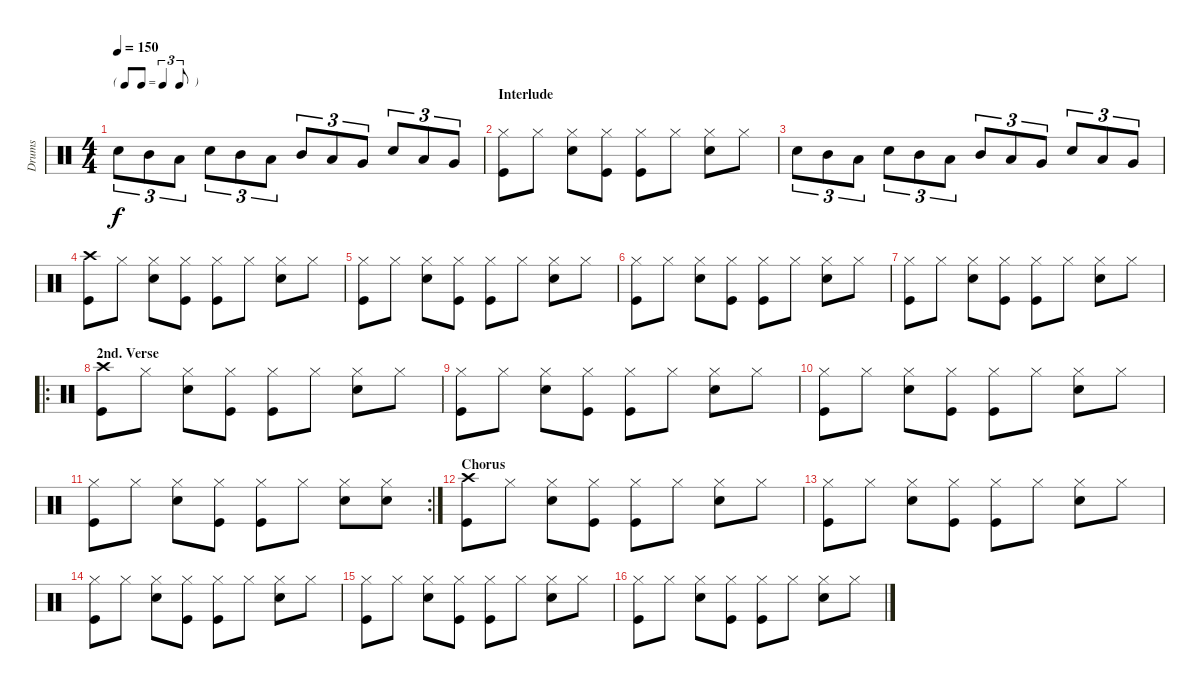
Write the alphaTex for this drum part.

\track ("Drums" "Drums") {instrument percussion}
\staff {score}
\articulation defaults
\ts (4 4)
\tf triplet8th
\tempo 150
\clef neutral
\ks c "Snare (hit) 2".8{tu (3 2) dy f} "Mid Tom (hit)".8{tu (3 2)} "Low Tom (hit)".8{tu (3 2)} "Snare (hit) 2".8{tu (3 2)} "Mid Tom (hit)".8{tu (3 2)} "Low Tom (hit)".8{tu (3 2)} "Mid Tom (hit)".8{tu (3 2)} "Low Tom (hit)".8{tu (3 2)} "Very Low Tom (hit)".8{tu (3 2)} "Snare (hit) 2".8{tu (3 2)} "Low Tom (hit)".8{tu (3 2)} "Very Low Tom (hit)".8{tu (3 2)}
|
\section ("" "Interlude")
("Hi-Hat (closed)" "Kick (hit)").8 "Hi-Hat (closed)".8 ("Hi-Hat (closed)" "Snare (hit) 2").8 ("Hi-Hat (closed)" "Kick (hit)").8 ("Hi-Hat (closed)" "Kick (hit)").8 "Hi-Hat (closed)".8 ("Hi-Hat (closed)" "Snare (hit) 2").8 "Hi-Hat (closed)".8 |
"Snare (hit) 2".8{tu (3 2)} "Mid Tom (hit)".8{tu (3 2)} "Low Tom (hit)".8{tu (3 2)} "Snare (hit) 2".8{tu (3 2)} "Mid Tom (hit)".8{tu (3 2)} "Low Tom (hit)".8{tu (3 2)} "Mid Tom (hit)".8{tu (3 2)} "Low Tom (hit)".8{tu (3 2)} "Very Low Tom (hit)".8{tu (3 2)} "Snare (hit) 2".8{tu (3 2)} "Low Tom (hit)".8{tu (3 2)} "Very Low Tom (hit)".8{tu (3 2)} |
("Crash high (hit)" "Kick (hit)").8 "Hi-Hat (closed)".8 ("Hi-Hat (closed)" "Snare (hit) 2").8 ("Hi-Hat (closed)" "Kick (hit)").8 ("Hi-Hat (closed)" "Kick (hit)").8 "Hi-Hat (closed)".8 ("Hi-Hat (closed)" "Snare (hit) 2").8 "Hi-Hat (closed)".8 |
("Hi-Hat (closed)" "Kick (hit)").8 "Hi-Hat (closed)".8 ("Hi-Hat (closed)" "Snare (hit) 2").8 ("Hi-Hat (closed)" "Kick (hit)").8 ("Hi-Hat (closed)" "Kick (hit)").8 "Hi-Hat (closed)".8 ("Hi-Hat (closed)" "Snare (hit) 2").8 "Hi-Hat (closed)".8 |
("Hi-Hat (closed)" "Kick (hit)").8 "Hi-Hat (closed)".8 ("Hi-Hat (closed)" "Snare (hit) 2").8 ("Hi-Hat (closed)" "Kick (hit)").8 ("Hi-Hat (closed)" "Kick (hit)").8 "Hi-Hat (closed)".8 ("Hi-Hat (closed)" "Snare (hit) 2").8 "Hi-Hat (closed)".8 |
("Hi-Hat (closed)" "Kick (hit)").8 "Hi-Hat (closed)".8 ("Hi-Hat (closed)" "Snare (hit) 2").8 ("Hi-Hat (closed)" "Kick (hit)").8 ("Hi-Hat (closed)" "Kick (hit)").8 "Hi-Hat (closed)".8 ("Hi-Hat (closed)" "Snare (hit) 2").8 "Hi-Hat (closed)".8 |
\ro
\section ("" "2nd. Verse")
("Crash high (hit)" "Kick (hit)").8 "Hi-Hat (closed)".8 ("Hi-Hat (closed)" "Snare (hit) 2").8 ("Hi-Hat (closed)" "Kick (hit)").8 ("Hi-Hat (closed)" "Kick (hit)").8 "Hi-Hat (closed)".8 ("Hi-Hat (closed)" "Snare (hit) 2").8 "Hi-Hat (closed)".8 |
("Hi-Hat (closed)" "Kick (hit)").8 "Hi-Hat (closed)".8 ("Hi-Hat (closed)" "Snare (hit) 2").8 ("Hi-Hat (closed)" "Kick (hit)").8 ("Hi-Hat (closed)" "Kick (hit)").8 "Hi-Hat (closed)".8 ("Hi-Hat (closed)" "Snare (hit) 2").8 "Hi-Hat (closed)".8 |
("Hi-Hat (closed)" "Kick (hit)").8 "Hi-Hat (closed)".8 ("Hi-Hat (closed)" "Snare (hit) 2").8 ("Hi-Hat (closed)" "Kick (hit)").8 ("Hi-Hat (closed)" "Kick (hit)").8 "Hi-Hat (closed)".8 ("Hi-Hat (closed)" "Snare (hit) 2").8 "Hi-Hat (closed)".8 |
\rc 2
("Hi-Hat (closed)" "Kick (hit)").8 "Hi-Hat (closed)".8 ("Hi-Hat (closed)" "Snare (hit) 2").8 ("Hi-Hat (closed)" "Kick (hit)").8 ("Hi-Hat (closed)" "Kick (hit)").8 "Hi-Hat (closed)".8 ("Hi-Hat (closed)" "Snare (hit) 2").8 ("Hi-Hat (closed)" "Snare (hit) 2").8 |
\section ("" "Chorus")
("Crash high (hit)" "Kick (hit)").8 "Hi-Hat (closed)".8 ("Hi-Hat (closed)" "Snare (hit) 2").8 ("Hi-Hat (closed)" "Kick (hit)").8 ("Hi-Hat (closed)" "Kick (hit)").8 "Hi-Hat (closed)".8 ("Hi-Hat (closed)" "Snare (hit) 2").8 "Hi-Hat (closed)".8 |
("Hi-Hat (closed)" "Kick (hit)").8 "Hi-Hat (closed)".8 ("Hi-Hat (closed)" "Snare (hit) 2").8 ("Hi-Hat (closed)" "Kick (hit)").8 ("Hi-Hat (closed)" "Kick (hit)").8 "Hi-Hat (closed)".8 ("Hi-Hat (closed)" "Snare (hit) 2").8 "Hi-Hat (closed)".8 |
("Hi-Hat (closed)" "Kick (hit)").8 "Hi-Hat (closed)".8 ("Hi-Hat (closed)" "Snare (hit) 2").8 ("Hi-Hat (closed)" "Kick (hit)").8 ("Hi-Hat (closed)" "Kick (hit)").8 "Hi-Hat (closed)".8 ("Hi-Hat (closed)" "Snare (hit) 2").8 "Hi-Hat (closed)".8 |
("Hi-Hat (closed)" "Kick (hit)").8 "Hi-Hat (closed)".8 ("Hi-Hat (closed)" "Snare (hit) 2").8 ("Hi-Hat (closed)" "Kick (hit)").8 ("Hi-Hat (closed)" "Kick (hit)").8 "Hi-Hat (closed)".8 ("Hi-Hat (closed)" "Snare (hit) 2").8 "Hi-Hat (closed)".8 |
("Hi-Hat (closed)" "Kick (hit)").8 "Hi-Hat (closed)".8 ("Hi-Hat (closed)" "Snare (hit) 2").8 ("Hi-Hat (closed)" "Kick (hit)").8 ("Hi-Hat (closed)" "Kick (hit)").8 "Hi-Hat (closed)".8 ("Hi-Hat (closed)" "Snare (hit) 2").8 "Hi-Hat (closed)".8
